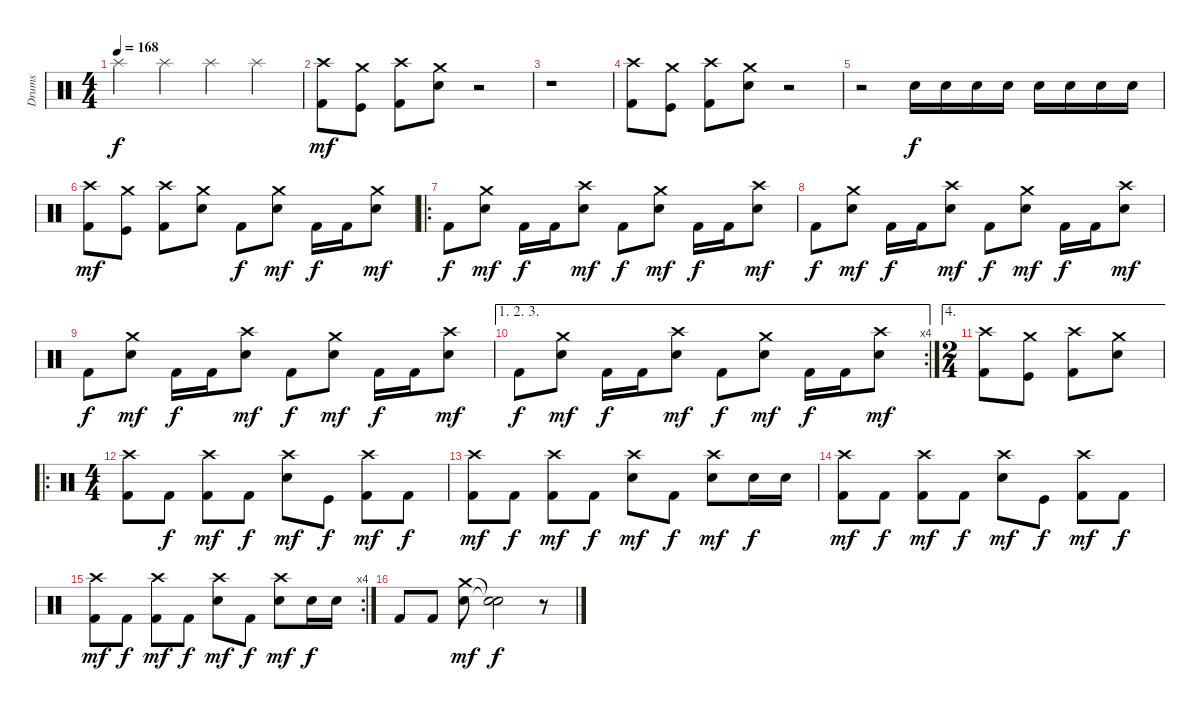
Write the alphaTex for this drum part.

\track ("Drums" "Drums") {instrument percussion}
\staff {score}
\articulation defaults
\ts (4 4)
\tempo 168
\clef neutral
\ks c "Splash (hit)".4{dy f} "Splash (hit)".4 "Splash (hit)".4 "Splash (hit)".4
|
("Crash high (hit)" "Kick (hit) 2").8{dy mf} ("Crash medium (hit)" "Kick (hit)").8 ("Crash high (hit)" "Kick (hit) 2").8 ("Crash medium (hit)" "Snare (hit) 2").8 r.2 |
r.1 |
("Crash high (hit)" "Kick (hit) 2").8 ("Crash medium (hit)" "Kick (hit)").8 ("Crash high (hit)" "Kick (hit) 2").8 ("Crash medium (hit)" "Snare (hit) 2").8 r.2 |
r.2 "Electric Snare (hit)".16{dy f} "Electric Snare (hit)".16 "Electric Snare (hit)".16 "Electric Snare (hit)".16 "Electric Snare (hit)".16 "Electric Snare (hit)".16 "Electric Snare (hit)".16 "Electric Snare (hit)".16 |
("Crash high (hit)" "Kick (hit) 2").8{dy mf} ("Crash medium (hit)" "Kick (hit)").8 ("Crash high (hit)" "Kick (hit) 2").8 ("Crash medium (hit)" "Snare (hit) 2").8 "Kick (hit) 2".8{dy f} ("Crash medium (hit)" "Snare (hit) 2").8{dy mf} "Kick (hit) 2".16{dy f} "Kick (hit) 2".16 ("Crash medium (hit)" "Snare (hit) 2").8{dy mf} |
\ro "Kick (hit) 2".8{dy f}
("Crash medium (hit)" "Snare (hit) 2").8{dy mf} "Kick (hit) 2".16{dy f} "Kick (hit) 2".16 ("Crash high (hit)" "Snare (hit) 2").8{dy mf} "Kick (hit) 2".8{dy f} ("Crash medium (hit)" "Snare (hit) 2").8{dy mf} "Kick (hit) 2".16{dy f} "Kick (hit) 2".16 ("Crash high (hit)" "Snare (hit) 2").8{dy mf} |
"Kick (hit) 2".8{dy f} ("Crash medium (hit)" "Snare (hit) 2").8{dy mf} "Kick (hit) 2".16{dy f} "Kick (hit) 2".16 ("Crash high (hit)" "Snare (hit) 2").8{dy mf} "Kick (hit) 2".8{dy f} ("Crash medium (hit)" "Snare (hit) 2").8{dy mf} "Kick (hit) 2".16{dy f} "Kick (hit) 2".16 ("Crash high (hit)" "Snare (hit) 2").8{dy mf} |
"Kick (hit) 2".8{dy f} ("Crash medium (hit)" "Snare (hit) 2").8{dy mf} "Kick (hit) 2".16{dy f} "Kick (hit) 2".16 ("Crash high (hit)" "Snare (hit) 2").8{dy mf} "Kick (hit) 2".8{dy f} ("Crash medium (hit)" "Snare (hit) 2").8{dy mf} "Kick (hit) 2".16{dy f} "Kick (hit) 2".16 ("Crash high (hit)" "Snare (hit) 2").8{dy mf} |
\ae (1 2 3)
\rc 4 "Kick (hit) 2".8{dy f}
("Crash medium (hit)" "Snare (hit) 2").8{dy mf} "Kick (hit) 2".16{dy f} "Kick (hit) 2".16 ("Crash high (hit)" "Snare (hit) 2").8{dy mf} "Kick (hit) 2".8{dy f} ("Crash medium (hit)" "Snare (hit) 2").8{dy mf} "Kick (hit) 2".16{dy f} "Kick (hit) 2".16 ("Crash high (hit)" "Snare (hit) 2").8{dy mf} |
\ae 4
\ts (2 4)
("Crash high (hit)" "Kick (hit) 2").8 ("Crash medium (hit)" "Kick (hit)").8 ("Crash high (hit)" "Kick (hit) 2").8 ("Crash medium (hit)" "Snare (hit) 2").8 |
\ro
\ts (4 4)
("Crash high (hit)" "Kick (hit) 2").8 "Kick (hit) 2".8{dy f} ("Crash high (hit)" "Kick (hit) 2").8{dy mf} "Kick (hit) 2".8{dy f} ("Crash high (hit)" "Snare (hit) 2").8{dy mf} "Kick (hit)".8{dy f} ("Crash high (hit)" "Kick (hit) 2").8{dy mf} "Kick (hit) 2".8{dy f} |
("Crash high (hit)" "Kick (hit) 2").8{dy mf} "Kick (hit) 2".8{dy f} ("Crash high (hit)" "Kick (hit) 2").8{dy mf} "Kick (hit) 2".8{dy f} ("Crash high (hit)" "Snare (hit) 2").8{dy mf} "Kick (hit) 2".8{dy f} ("Crash high (hit)" "Snare (hit) 2").8{dy mf} "Snare (hit) 2".16{dy f} "Snare (hit) 2".16 |
("Crash high (hit)" "Kick (hit) 2").8{dy mf} "Kick (hit) 2".8{dy f} ("Crash high (hit)" "Kick (hit) 2").8{dy mf} "Kick (hit) 2".8{dy f} ("Crash high (hit)" "Snare (hit) 2").8{dy mf} "Kick (hit)".8{dy f} ("Crash high (hit)" "Kick (hit) 2").8{dy mf} "Kick (hit) 2".8{dy f} |
\rc 4
("Crash high (hit)" "Kick (hit) 2").8{dy mf} "Kick (hit) 2".8{dy f} ("Crash high (hit)" "Kick (hit) 2").8{dy mf} "Kick (hit) 2".8{dy f} ("Crash high (hit)" "Snare (hit) 2").8{dy mf} "Kick (hit) 2".8{dy f} ("Crash high (hit)" "Snare (hit) 2").8{dy mf} "Snare (hit) 2".16{dy f} "Snare (hit) 2".16 |
"Kick (hit) 2".8 "Kick (hit) 2".8 ("Crash medium (hit)" "Snare (hit) 2").8{dy mf} ("Snare (hit)"{t} "Snare (hit)"{t}).2{dy f} r.8
